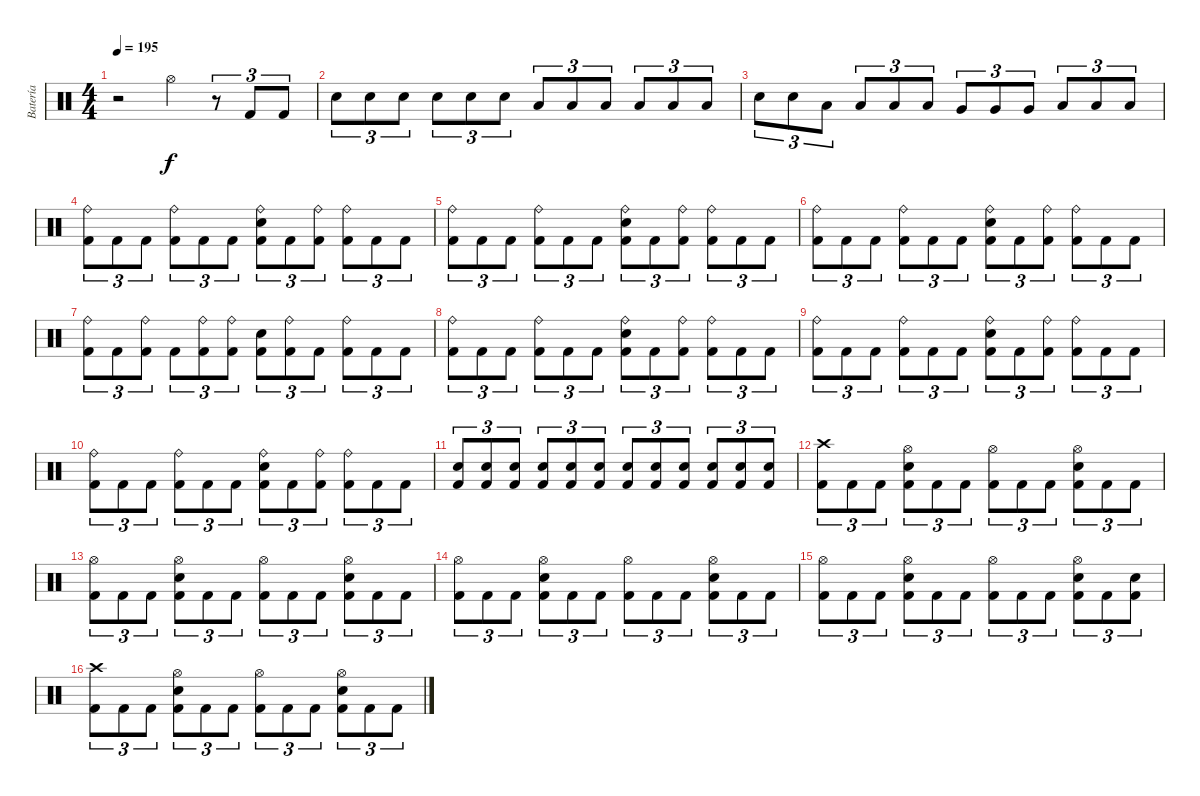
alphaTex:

\track ("Batería" "Batería") {instrument percussion}
\staff {score}
\articulation defaults
\ts (4 4)
\tempo 195
\clef neutral
\ks c
r.2{dy f} "Hi-Hat (open)".4 r.8{tu (3 2)} "Kick (hit) 2".8{tu (3 2)} "Kick (hit) 2".8{tu (3 2)} |
"Snare (hit) 2".8{tu (3 2)} "Snare (hit) 2".8{tu (3 2)} "Snare (hit) 2".8{tu (3 2)} "Snare (hit) 2".8{tu (3 2)} "Snare (hit) 2".8{tu (3 2)} "Snare (hit) 2".8{tu (3 2)} "Low Tom (hit)".8{tu (3 2)} "Low Tom (hit)".8{tu (3 2)} "Low Tom (hit)".8{tu (3 2)} "Low Tom (hit)".8{tu (3 2)} "Low Tom (hit)".8{tu (3 2)} "Low Tom (hit)".8{tu (3 2)} |
"Snare (hit) 2".8{tu (3 2)} "Snare (hit) 2".8{tu (3 2)} "Low Tom (hit)".8{tu (3 2)} "Low Tom (hit)".8{tu (3 2)} "Low Tom (hit)".8{tu (3 2)} "Low Tom (hit)".8{tu (3 2)} "Very Low Tom (hit)".8{tu (3 2)} "Very Low Tom (hit)".8{tu (3 2)} "Very Low Tom (hit)".8{tu (3 2)} "Low Floor Tom (hit)".8{tu (3 2)} "Low Floor Tom (hit)".8{tu (3 2)} "Low Floor Tom (hit)".8{tu (3 2)} |
("Ride (bell)" "Kick (hit) 2").8{tu (3 2)} "Kick (hit) 2".8{tu (3 2)} "Kick (hit) 2".8{tu (3 2)} ("Ride (bell)" "Kick (hit) 2").8{tu (3 2)} "Kick (hit) 2".8{tu (3 2)} "Kick (hit) 2".8{tu (3 2)} ("Ride (bell)" "Snare (hit) 2" "Kick (hit) 2").8{tu (3 2)} "Kick (hit) 2".8{tu (3 2)} ("Ride (bell)" "Kick (hit) 2").8{tu (3 2)} ("Ride (bell)" "Kick (hit) 2").8{tu (3 2)} "Kick (hit) 2".8{tu (3 2)} "Kick (hit) 2".8{tu (3 2)} |
("Ride (bell)" "Kick (hit) 2").8{tu (3 2)} "Kick (hit) 2".8{tu (3 2)} "Kick (hit) 2".8{tu (3 2)} ("Ride (bell)" "Kick (hit) 2").8{tu (3 2)} "Kick (hit) 2".8{tu (3 2)} "Kick (hit) 2".8{tu (3 2)} ("Ride (bell)" "Snare (hit) 2" "Kick (hit) 2").8{tu (3 2)} "Kick (hit) 2".8{tu (3 2)} ("Ride (bell)" "Kick (hit) 2").8{tu (3 2)} ("Ride (bell)" "Kick (hit) 2").8{tu (3 2)} "Kick (hit) 2".8{tu (3 2)} "Kick (hit) 2".8{tu (3 2)} |
("Ride (bell)" "Kick (hit) 2").8{tu (3 2)} "Kick (hit) 2".8{tu (3 2)} "Kick (hit) 2".8{tu (3 2)} ("Ride (bell)" "Kick (hit) 2").8{tu (3 2)} "Kick (hit) 2".8{tu (3 2)} "Kick (hit) 2".8{tu (3 2)} ("Ride (bell)" "Snare (hit) 2" "Kick (hit) 2").8{tu (3 2)} "Kick (hit) 2".8{tu (3 2)} ("Ride (bell)" "Kick (hit) 2").8{tu (3 2)} ("Ride (bell)" "Kick (hit) 2").8{tu (3 2)} "Kick (hit) 2".8{tu (3 2)} "Kick (hit) 2".8{tu (3 2)} |
("Ride (bell)" "Kick (hit) 2").8{tu (3 2)} "Kick (hit) 2".8{tu (3 2)} ("Ride (bell)" "Kick (hit) 2").8{tu (3 2)} "Kick (hit) 2".8{tu (3 2)} ("Ride (bell)" "Kick (hit) 2").8{tu (3 2)} ("Ride (bell)" "Kick (hit) 2").8{tu (3 2)} ("Snare (hit) 2" "Kick (hit) 2").8{tu (3 2)} ("Ride (bell)" "Kick (hit) 2").8{tu (3 2)} "Kick (hit) 2".8{tu (3 2)} ("Ride (bell)" "Kick (hit) 2").8{tu (3 2)} "Kick (hit) 2".8{tu (3 2)} "Kick (hit) 2".8{tu (3 2)} |
("Ride (bell)" "Kick (hit) 2").8{tu (3 2)} "Kick (hit) 2".8{tu (3 2)} "Kick (hit) 2".8{tu (3 2)} ("Ride (bell)" "Kick (hit) 2").8{tu (3 2)} "Kick (hit) 2".8{tu (3 2)} "Kick (hit) 2".8{tu (3 2)} ("Ride (bell)" "Snare (hit) 2" "Kick (hit) 2").8{tu (3 2)} "Kick (hit) 2".8{tu (3 2)} ("Ride (bell)" "Kick (hit) 2").8{tu (3 2)} ("Ride (bell)" "Kick (hit) 2").8{tu (3 2)} "Kick (hit) 2".8{tu (3 2)} "Kick (hit) 2".8{tu (3 2)} |
("Ride (bell)" "Kick (hit) 2").8{tu (3 2)} "Kick (hit) 2".8{tu (3 2)} "Kick (hit) 2".8{tu (3 2)} ("Ride (bell)" "Kick (hit) 2").8{tu (3 2)} "Kick (hit) 2".8{tu (3 2)} "Kick (hit) 2".8{tu (3 2)} ("Ride (bell)" "Snare (hit) 2" "Kick (hit) 2").8{tu (3 2)} "Kick (hit) 2".8{tu (3 2)} ("Ride (bell)" "Kick (hit) 2").8{tu (3 2)} ("Ride (bell)" "Kick (hit) 2").8{tu (3 2)} "Kick (hit) 2".8{tu (3 2)} "Kick (hit) 2".8{tu (3 2)} |
("Ride (bell)" "Kick (hit) 2").8{tu (3 2)} "Kick (hit) 2".8{tu (3 2)} "Kick (hit) 2".8{tu (3 2)} ("Ride (bell)" "Kick (hit) 2").8{tu (3 2)} "Kick (hit) 2".8{tu (3 2)} "Kick (hit) 2".8{tu (3 2)} ("Ride (bell)" "Snare (hit) 2" "Kick (hit) 2").8{tu (3 2)} "Kick (hit) 2".8{tu (3 2)} ("Ride (bell)" "Kick (hit) 2").8{tu (3 2)} ("Ride (bell)" "Kick (hit) 2").8{tu (3 2)} "Kick (hit) 2".8{tu (3 2)} "Kick (hit) 2".8{tu (3 2)} |
("Snare (hit) 2" "Kick (hit) 2").8{tu (3 2) volume 9} ("Snare (hit) 2" "Kick (hit) 2").8{tu (3 2) volume 13} ("Snare (hit) 2" "Kick (hit) 2").8{tu (3 2)} ("Snare (hit) 2" "Kick (hit) 2").8{tu (3 2)} ("Snare (hit) 2" "Kick (hit) 2").8{tu (3 2)} ("Snare (hit) 2" "Kick (hit) 2").8{tu (3 2)} ("Snare (hit) 2" "Kick (hit) 2").8{tu (3 2)} ("Snare (hit) 2" "Kick (hit) 2").8{tu (3 2)} ("Snare (hit) 2" "Kick (hit) 2").8{tu (3 2)} ("Snare (hit) 2" "Kick (hit) 2").8{tu (3 2)} ("Snare (hit) 2" "Kick (hit) 2").8{tu (3 2)} ("Snare (hit) 2" "Kick (hit) 2").8{tu (3 2)} |
("Crash high (hit)" "Kick (hit) 2").8{tu (3 2)} "Kick (hit) 2".8{tu (3 2)} "Kick (hit) 2".8{tu (3 2)} ("Hi-Hat (open)" "Snare (hit) 2" "Kick (hit) 2").8{tu (3 2)} "Kick (hit) 2".8{tu (3 2)} "Kick (hit) 2".8{tu (3 2)} ("Hi-Hat (open)" "Kick (hit) 2").8{tu (3 2)} "Kick (hit) 2".8{tu (3 2)} "Kick (hit) 2".8{tu (3 2)} ("Hi-Hat (open)" "Snare (hit) 2" "Kick (hit) 2").8{tu (3 2)} "Kick (hit) 2".8{tu (3 2)} "Kick (hit) 2".8{tu (3 2)} |
("Hi-Hat (open)" "Kick (hit) 2").8{tu (3 2)} "Kick (hit) 2".8{tu (3 2)} "Kick (hit) 2".8{tu (3 2)} ("Hi-Hat (open)" "Snare (hit) 2" "Kick (hit) 2").8{tu (3 2)} "Kick (hit) 2".8{tu (3 2)} "Kick (hit) 2".8{tu (3 2)} ("Hi-Hat (open)" "Kick (hit) 2").8{tu (3 2)} "Kick (hit) 2".8{tu (3 2)} "Kick (hit) 2".8{tu (3 2)} ("Hi-Hat (open)" "Snare (hit) 2" "Kick (hit) 2").8{tu (3 2)} "Kick (hit) 2".8{tu (3 2)} "Kick (hit) 2".8{tu (3 2)} |
("Hi-Hat (open)" "Kick (hit) 2").8{tu (3 2)} "Kick (hit) 2".8{tu (3 2)} "Kick (hit) 2".8{tu (3 2)} ("Hi-Hat (open)" "Snare (hit) 2" "Kick (hit) 2").8{tu (3 2)} "Kick (hit) 2".8{tu (3 2)} "Kick (hit) 2".8{tu (3 2)} ("Hi-Hat (open)" "Kick (hit) 2").8{tu (3 2)} "Kick (hit) 2".8{tu (3 2)} "Kick (hit) 2".8{tu (3 2)} ("Hi-Hat (open)" "Snare (hit) 2" "Kick (hit) 2").8{tu (3 2)} "Kick (hit) 2".8{tu (3 2)} "Kick (hit) 2".8{tu (3 2)} |
("Hi-Hat (open)" "Kick (hit) 2").8{tu (3 2)} "Kick (hit) 2".8{tu (3 2)} "Kick (hit) 2".8{tu (3 2)} ("Hi-Hat (open)" "Snare (hit) 2" "Kick (hit) 2").8{tu (3 2)} "Kick (hit) 2".8{tu (3 2)} "Kick (hit) 2".8{tu (3 2)} ("Hi-Hat (open)" "Kick (hit) 2").8{tu (3 2)} "Kick (hit) 2".8{tu (3 2)} "Kick (hit) 2".8{tu (3 2)} ("Hi-Hat (open)" "Snare (hit) 2" "Kick (hit) 2").8{tu (3 2)} "Kick (hit) 2".8{tu (3 2)} ("Snare (hit) 2" "Kick (hit) 2").8{tu (3 2)} |
("Crash high (hit)" "Kick (hit) 2").8{tu (3 2)} "Kick (hit) 2".8{tu (3 2)} "Kick (hit) 2".8{tu (3 2)} ("Hi-Hat (open)" "Snare (hit) 2" "Kick (hit) 2").8{tu (3 2)} "Kick (hit) 2".8{tu (3 2)} "Kick (hit) 2".8{tu (3 2)} ("Hi-Hat (open)" "Kick (hit) 2").8{tu (3 2)} "Kick (hit) 2".8{tu (3 2)} "Kick (hit) 2".8{tu (3 2)} ("Hi-Hat (open)" "Snare (hit) 2" "Kick (hit) 2").8{tu (3 2)} "Kick (hit) 2".8{tu (3 2)} "Kick (hit) 2".8{tu (3 2)}
